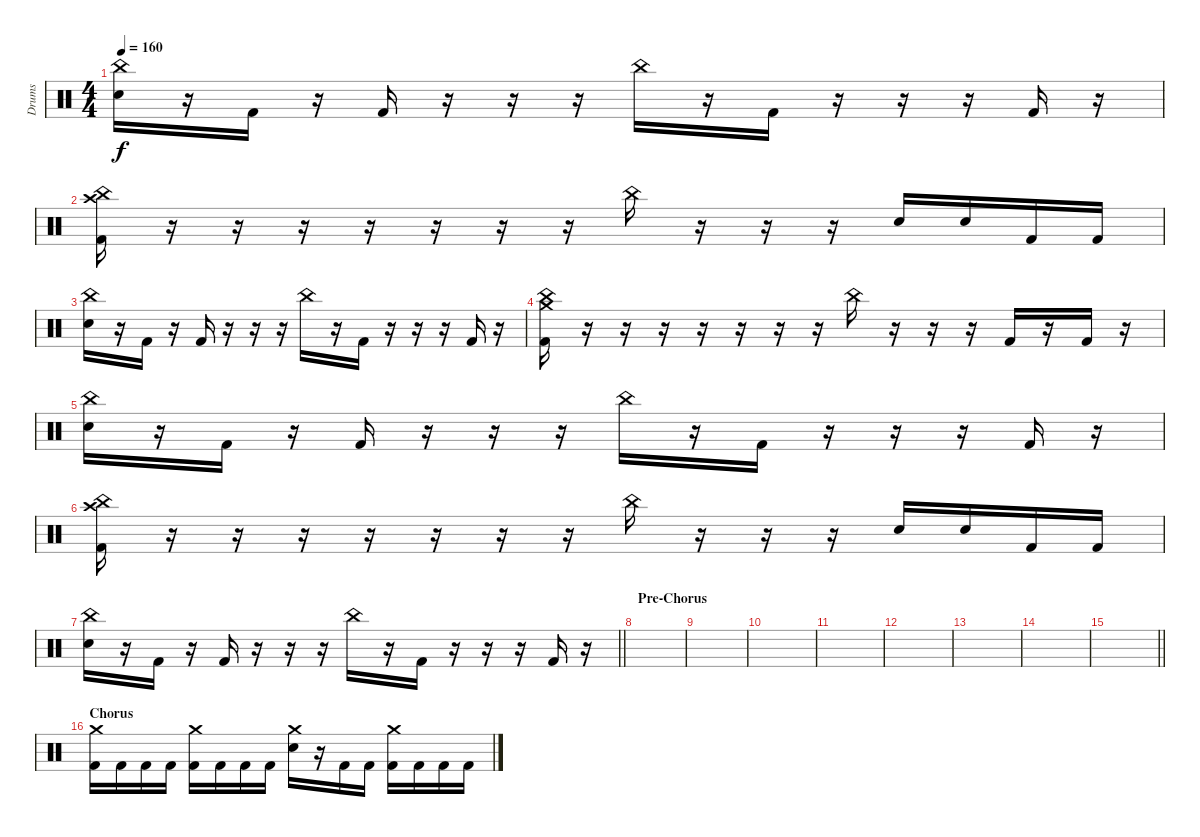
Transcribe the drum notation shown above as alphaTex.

\track ("Drums" "Drums") {instrument percussion}
\staff {score}
\articulation defaults
\ts (4 4)
\tempo 160
\clef neutral
\ks c
("China (hit)" "Electric Snare (hit)").16{dy f} r.16 "Kick (hit) 2".16 r.16 "Kick (hit) 2".16 r.16 r.16 r.16 "China (hit)".16 r.16 "Kick (hit) 2".16 r.16 r.16 r.16 "Kick (hit) 2".16 r.16 |
("China (hit)" "Crash high (hit)" "Kick (hit) 2").16 r.16 r.16 r.16 r.16 r.16 r.16 r.16 "China (hit)".16 r.16 r.16 r.16 "Electric Snare (hit)".16 "Electric Snare (hit)".16 "Kick (hit) 2".16 "Kick (hit) 2".16 |
("China (hit)" "Electric Snare (hit)").16 r.16 "Kick (hit) 2".16 r.16 "Kick (hit) 2".16 r.16 r.16 r.16 "China (hit)".16 r.16 "Kick (hit) 2".16 r.16 r.16 r.16 "Kick (hit) 2".16 r.16 |
("Crash medium (hit)" "China (hit)" "Kick (hit) 2").16 r.16 r.16 r.16 r.16 r.16 r.16 r.16 "China (hit)".16 r.16 r.16 r.16 "Kick (hit) 2".16 r.16 "Kick (hit) 2".16 r.16 |
("China (hit)" "Electric Snare (hit)").16 r.16 "Kick (hit) 2".16 r.16 "Kick (hit) 2".16 r.16 r.16 r.16 "China (hit)".16 r.16 "Kick (hit) 2".16 r.16 r.16 r.16 "Kick (hit) 2".16 r.16 |
("China (hit)" "Crash high (hit)" "Kick (hit) 2").16 r.16 r.16 r.16 r.16 r.16 r.16 r.16 "China (hit)".16 r.16 r.16 r.16 "Electric Snare (hit)".16 "Electric Snare (hit)".16 "Kick (hit) 2".16 "Kick (hit) 2".16 |
\barLineRight lightlight
("China (hit)" "Electric Snare (hit)").16 r.16 "Kick (hit) 2".16 r.16 "Kick (hit) 2".16 r.16 r.16 r.16 "China (hit)".16 r.16 "Kick (hit) 2".16 r.16 r.16 r.16 "Kick (hit) 2".16 r.16 |
\section ("" "Pre-Chorus")
|
|
|
|
|
|
|
\barLineRight lightlight
|
\section ("" "Chorus")
("Crash medium (hit)" "Kick (hit) 2").16 "Kick (hit) 2".16 "Kick (hit) 2".16 "Kick (hit) 2".16 ("Crash medium (hit)" "Kick (hit) 2").16 "Kick (hit) 2".16 "Kick (hit) 2".16 "Kick (hit) 2".16 ("Crash medium (hit)" "Electric Snare (hit)").16 r.16 "Kick (hit) 2".16 "Kick (hit) 2".16 ("Crash medium (hit)" "Kick (hit) 2").16 "Kick (hit) 2".16 "Kick (hit) 2".16 "Kick (hit) 2".16
